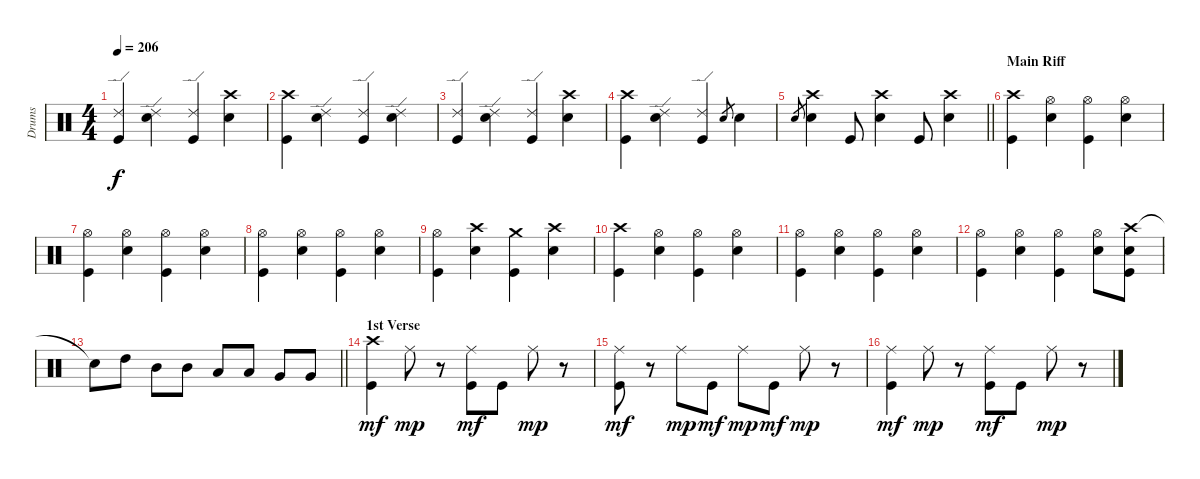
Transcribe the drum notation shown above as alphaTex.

\track ("Drums" "Drums") {instrument percussion}
\staff {score}
\articulation defaults
\ts (4 4)
\tempo 206
\clef neutral
\ks c
("Ride (edge) 2" "Kick (hit)").4{dy f} ("Ride (edge) 2" "Electric Snare (hit)").4 ("Ride (edge) 2" "Kick (hit)").4 ("Crash high (hit)" "Electric Snare (hit)").4 |
("Crash high (hit)" "Kick (hit)").4 ("Ride (edge) 2" "Electric Snare (hit)").4 ("Ride (edge) 2" "Kick (hit)").4 ("Ride (edge) 2" "Electric Snare (hit)").4 |
("Ride (edge) 2" "Kick (hit)").4 ("Ride (edge) 2" "Electric Snare (hit)").4 ("Ride (edge) 2" "Kick (hit)").4 ("Crash high (hit)" "Electric Snare (hit)").4 |
("Crash high (hit)" "Kick (hit)").4 ("Ride (edge) 2" "Electric Snare (hit)").4 ("Ride (edge) 2" "Kick (hit)").4 "Electric Snare (hit)".8{gr} "Electric Snare (hit)".4 |
\barLineRight lightlight "Electric Snare (hit)".8{gr}
("Crash high (hit)" "Electric Snare (hit)").4 "Kick (hit)".8 ("Crash high (hit)" "Electric Snare (hit)").4 "Kick (hit)".8 ("Crash high (hit)" "Electric Snare (hit)").4 |
\section ("" "Main Riff")
("Crash high (hit)" "Kick (hit)").4 ("Hi-Hat (open)" "Electric Snare (hit)").4 ("Hi-Hat (open)" "Kick (hit)").4 ("Hi-Hat (open)" "Electric Snare (hit)").4 |
("Hi-Hat (open)" "Kick (hit)").4 ("Hi-Hat (open)" "Electric Snare (hit)").4 ("Hi-Hat (open)" "Kick (hit)").4 ("Hi-Hat (open)" "Electric Snare (hit)").4 |
("Hi-Hat (open)" "Kick (hit)").4 ("Hi-Hat (open)" "Electric Snare (hit)").4 ("Hi-Hat (open)" "Kick (hit)").4 ("Hi-Hat (open)" "Electric Snare (hit)").4 |
("Hi-Hat (open)" "Kick (hit)").4 ("Crash high (hit)" "Electric Snare (hit)").4 ("Crash medium (hit)" "Kick (hit)").4 ("Crash high (hit)" "Electric Snare (hit)").4 |
("Crash high (hit)" "Kick (hit)").4 ("Hi-Hat (open)" "Electric Snare (hit)").4 ("Hi-Hat (open)" "Kick (hit)").4 ("Hi-Hat (open)" "Electric Snare (hit)").4 |
("Hi-Hat (open)" "Kick (hit)").4 ("Hi-Hat (open)" "Electric Snare (hit)").4 ("Hi-Hat (open)" "Kick (hit)").4 ("Hi-Hat (open)" "Electric Snare (hit)").4 |
("Hi-Hat (open)" "Kick (hit)").4 ("Hi-Hat (open)" "Electric Snare (hit)").4 ("Hi-Hat (open)" "Kick (hit)").4 ("Hi-Hat (open)" "Electric Snare (hit)").8 ("Crash high (hit)" "Electric Snare (hit)" "Kick (hit)").8 |
\barLineRight lightlight "Snare (hit)"{t}.8 "High Tom (hit)".8 "Mid Tom (hit)".8 "Mid Tom (hit)".8 "Low Tom (hit)".8 "Low Tom (hit)".8 "Very Low Tom (hit)".8 "Very Low Tom (hit)".8
|
\section ("" "1st Verse")
("Crash high (hit)" "Kick (hit)").4{dy mf} "Ride (middle)".8{dy mp} r.8 ("Ride (middle)" "Kick (hit)").8{dy mf} "Kick (hit)".8 "Ride (middle)".8{dy mp} r.8 |
("Ride (middle)" "Kick (hit)").8{dy mf} r.8 "Ride (middle)".8{dy mp} "Kick (hit)".8{dy mf} "Ride (middle)".8{dy mp} "Kick (hit)".8{dy mf} "Ride (middle)".8{dy mp} r.8 |
("Ride (middle)" "Kick (hit)").4{dy mf} "Ride (middle)".8{dy mp} r.8 ("Ride (middle)" "Kick (hit)").8{dy mf} "Kick (hit)".8 "Ride (middle)".8{dy mp} r.8
